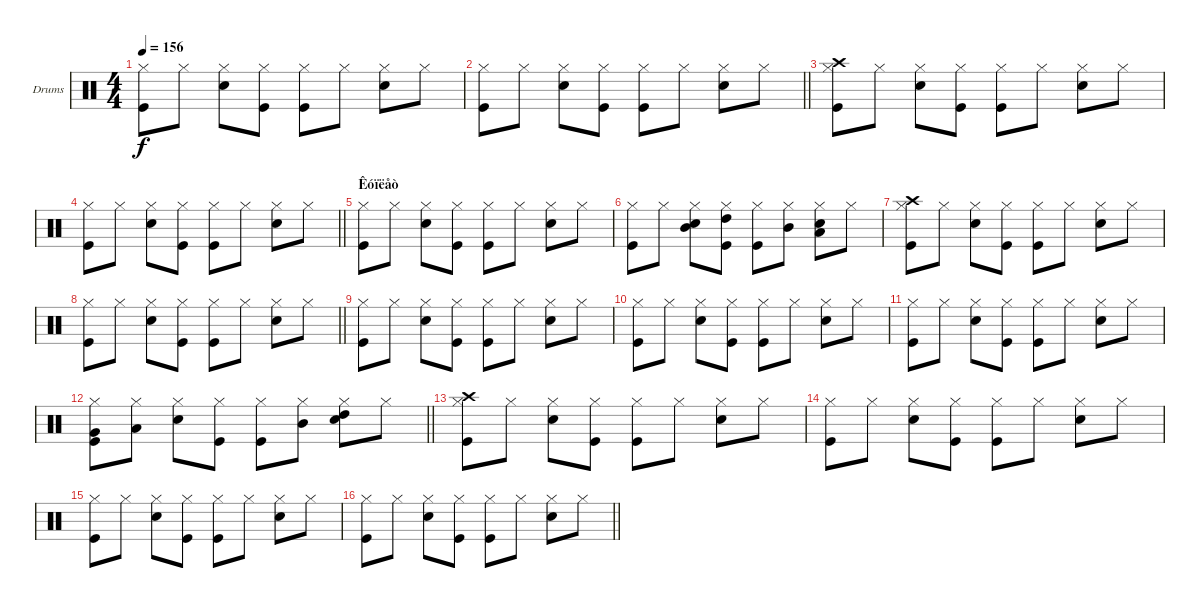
\bracketExtendMode groupsimilarinstruments
\firstSystemTrackNameOrientation horizontal
\otherSystemsTrackNameOrientation horizontal
\track ("Drumkit" "Drums") {instrument percussion}
\staff {score}
\articulation defaults
\ts (4 4)
\tempo 156
\clef neutral
\ks c
("Hi-Hat (closed)" "Kick (hit)").8{dy f} "Hi-Hat (closed)".8 ("Hi-Hat (closed)" "Snare (hit) 2").8 ("Hi-Hat (closed)" "Kick (hit)").8 ("Hi-Hat (closed)" "Kick (hit)").8 "Hi-Hat (closed)".8 ("Hi-Hat (closed)" "Snare (hit) 2").8 "Hi-Hat (closed)".8 |
\barLineRight lightlight
("Hi-Hat (closed)" "Kick (hit)").8 "Hi-Hat (closed)".8 ("Hi-Hat (closed)" "Snare (hit) 2").8 ("Hi-Hat (closed)" "Kick (hit)").8 ("Hi-Hat (closed)" "Kick (hit)").8 "Hi-Hat (closed)".8 ("Hi-Hat (closed)" "Snare (hit) 2").8 "Hi-Hat (closed)".8 |
("Hi-Hat (closed)" "Kick (hit)" "Crash high (hit)").8 "Hi-Hat (closed)".8 ("Hi-Hat (closed)" "Snare (hit) 2").8 ("Hi-Hat (closed)" "Kick (hit)").8 ("Hi-Hat (closed)" "Kick (hit)").8 "Hi-Hat (closed)".8 ("Hi-Hat (closed)" "Snare (hit) 2").8 "Hi-Hat (closed)".8 |
\barLineRight lightlight
("Hi-Hat (closed)" "Kick (hit)").8 "Hi-Hat (closed)".8 ("Hi-Hat (closed)" "Snare (hit) 2").8 ("Hi-Hat (closed)" "Kick (hit)").8 ("Hi-Hat (closed)" "Kick (hit)").8 "Hi-Hat (closed)".8 ("Hi-Hat (closed)" "Snare (hit) 2").8 "Hi-Hat (closed)".8 |
\section ("" "Êóïëåò")
("Hi-Hat (closed)" "Kick (hit)").8 "Hi-Hat (closed)".8 ("Hi-Hat (closed)" "Snare (hit) 2").8 ("Hi-Hat (closed)" "Kick (hit)").8 ("Hi-Hat (closed)" "Kick (hit)").8 "Hi-Hat (closed)".8 ("Hi-Hat (closed)" "Snare (hit) 2").8 "Hi-Hat (closed)".8 |
("Hi-Hat (closed)" "Kick (hit)").8 "Hi-Hat (closed)".8 ("Hi-Hat (closed)" "Snare (hit) 2" "Mid Tom (hit)").8 ("Hi-Hat (closed)" "Kick (hit)" "High Tom (hit)").8 ("Hi-Hat (closed)" "Kick (hit)").8 ("Hi-Hat (closed)" "Mid Tom (hit)").8 ("Hi-Hat (closed)" "Snare (hit) 2" "Low Tom (hit)").8 "Hi-Hat (closed)".8 |
("Hi-Hat (closed)" "Kick (hit)" "Crash high (hit)").8 "Hi-Hat (closed)".8 ("Hi-Hat (closed)" "Snare (hit) 2").8 ("Hi-Hat (closed)" "Kick (hit)").8 ("Hi-Hat (closed)" "Kick (hit)").8 "Hi-Hat (closed)".8 ("Hi-Hat (closed)" "Snare (hit) 2").8 "Hi-Hat (closed)".8 |
\barLineRight lightlight
("Hi-Hat (closed)" "Kick (hit)").8 "Hi-Hat (closed)".8 ("Hi-Hat (closed)" "Snare (hit) 2").8 ("Hi-Hat (closed)" "Kick (hit)").8 ("Hi-Hat (closed)" "Kick (hit)").8 "Hi-Hat (closed)".8 ("Hi-Hat (closed)" "Snare (hit) 2").8 "Hi-Hat (closed)".8 |
("Hi-Hat (closed)" "Kick (hit)").8 "Hi-Hat (closed)".8 ("Hi-Hat (closed)" "Snare (hit) 2").8 ("Hi-Hat (closed)" "Kick (hit)").8 ("Hi-Hat (closed)" "Kick (hit)").8 "Hi-Hat (closed)".8 ("Hi-Hat (closed)" "Snare (hit) 2").8 "Hi-Hat (closed)".8 |
("Hi-Hat (closed)" "Kick (hit)").8 "Hi-Hat (closed)".8 ("Hi-Hat (closed)" "Snare (hit) 2").8 ("Hi-Hat (closed)" "Kick (hit)").8 ("Hi-Hat (closed)" "Kick (hit)").8 "Hi-Hat (closed)".8 ("Hi-Hat (closed)" "Snare (hit) 2").8 "Hi-Hat (closed)".8 |
("Hi-Hat (closed)" "Kick (hit)").8 "Hi-Hat (closed)".8 ("Hi-Hat (closed)" "Snare (hit) 2").8 ("Hi-Hat (closed)" "Kick (hit)").8 ("Hi-Hat (closed)" "Kick (hit)").8 "Hi-Hat (closed)".8 ("Hi-Hat (closed)" "Snare (hit) 2").8 "Hi-Hat (closed)".8 |
\barLineRight lightlight
("Hi-Hat (closed)" "Kick (hit)" "Very Low Tom (hit)").8 ("Hi-Hat (closed)" "Low Tom (hit)").8 ("Hi-Hat (closed)" "Snare (hit) 2").8 ("Hi-Hat (closed)" "Kick (hit)").8 ("Hi-Hat (closed)" "Kick (hit)").8 ("Hi-Hat (closed)" "Mid Tom (hit)").8 ("Hi-Hat (closed)" "Snare (hit) 2" "High Tom (hit)").8 "Hi-Hat (closed)".8 |
("Hi-Hat (closed)" "Kick (hit)" "Crash high (hit)").8 "Hi-Hat (closed)".8 ("Hi-Hat (closed)" "Snare (hit) 2").8 ("Hi-Hat (closed)" "Kick (hit)").8 ("Hi-Hat (closed)" "Kick (hit)").8 "Hi-Hat (closed)".8 ("Hi-Hat (closed)" "Snare (hit) 2").8 "Hi-Hat (closed)".8 |
("Hi-Hat (closed)" "Kick (hit)").8 "Hi-Hat (closed)".8 ("Hi-Hat (closed)" "Snare (hit) 2").8 ("Hi-Hat (closed)" "Kick (hit)").8 ("Hi-Hat (closed)" "Kick (hit)").8 "Hi-Hat (closed)".8 ("Hi-Hat (closed)" "Snare (hit) 2").8 "Hi-Hat (closed)".8 |
("Hi-Hat (closed)" "Kick (hit)").8 "Hi-Hat (closed)".8 ("Hi-Hat (closed)" "Snare (hit) 2").8 ("Hi-Hat (closed)" "Kick (hit)").8 ("Hi-Hat (closed)" "Kick (hit)").8 "Hi-Hat (closed)".8 ("Hi-Hat (closed)" "Snare (hit) 2").8 "Hi-Hat (closed)".8 |
\barLineRight lightlight
("Hi-Hat (closed)" "Kick (hit)").8 "Hi-Hat (closed)".8 ("Hi-Hat (closed)" "Snare (hit) 2").8 ("Hi-Hat (closed)" "Kick (hit)").8 ("Hi-Hat (closed)" "Kick (hit)").8 "Hi-Hat (closed)".8 ("Hi-Hat (closed)" "Snare (hit) 2").8 "Hi-Hat (closed)".8
